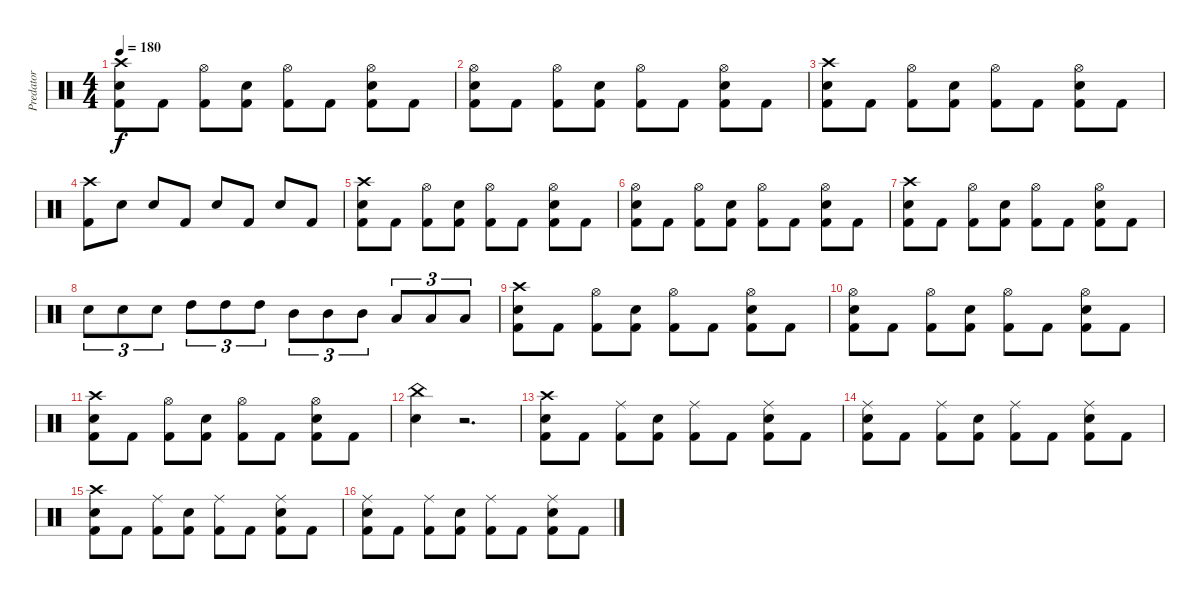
\track ("Predator" "Predator") {instrument percussion}
\staff {score}
\articulation defaults
\ts (4 4)
\tempo 180
\clef neutral
\ks c
("Kick (hit) 2" "Electric Snare (hit)" "Crash high (hit)").8{dy f} "Kick (hit) 2".8 ("Kick (hit) 2" "Hi-Hat (open)").8 ("Kick (hit) 2" "Electric Snare (hit)").8 ("Kick (hit) 2" "Hi-Hat (open)").8 "Kick (hit) 2".8 ("Kick (hit) 2" "Electric Snare (hit)" "Hi-Hat (open)").8 "Kick (hit) 2".8 |
("Kick (hit) 2" "Electric Snare (hit)" "Hi-Hat (open)").8 "Kick (hit) 2".8 ("Kick (hit) 2" "Hi-Hat (open)").8 ("Kick (hit) 2" "Electric Snare (hit)").8 ("Kick (hit) 2" "Hi-Hat (open)").8 "Kick (hit) 2".8 ("Kick (hit) 2" "Electric Snare (hit)" "Hi-Hat (open)").8 "Kick (hit) 2".8 |
("Kick (hit) 2" "Electric Snare (hit)" "Crash high (hit)").8 "Kick (hit) 2".8 ("Kick (hit) 2" "Hi-Hat (open)").8 ("Kick (hit) 2" "Electric Snare (hit)").8 ("Kick (hit) 2" "Hi-Hat (open)").8 "Kick (hit) 2".8 ("Kick (hit) 2" "Electric Snare (hit)" "Hi-Hat (open)").8 "Kick (hit) 2".8 |
("Kick (hit) 2" "Crash high (hit)").8 "Electric Snare (hit)".8 "Electric Snare (hit)".8 "Kick (hit) 2".8 "Electric Snare (hit)".8 "Kick (hit) 2".8 "Electric Snare (hit)".8 "Kick (hit) 2".8 |
("Kick (hit) 2" "Electric Snare (hit)" "Crash high (hit)").8 "Kick (hit) 2".8 ("Kick (hit) 2" "Hi-Hat (open)").8 ("Kick (hit) 2" "Electric Snare (hit)").8 ("Kick (hit) 2" "Hi-Hat (open)").8 "Kick (hit) 2".8 ("Kick (hit) 2" "Electric Snare (hit)" "Hi-Hat (open)").8 "Kick (hit) 2".8 |
("Kick (hit) 2" "Electric Snare (hit)" "Hi-Hat (open)").8 "Kick (hit) 2".8 ("Kick (hit) 2" "Hi-Hat (open)").8 ("Kick (hit) 2" "Electric Snare (hit)").8 ("Kick (hit) 2" "Hi-Hat (open)").8 "Kick (hit) 2".8 ("Kick (hit) 2" "Electric Snare (hit)" "Hi-Hat (open)").8 "Kick (hit) 2".8 |
("Kick (hit) 2" "Electric Snare (hit)" "Crash high (hit)").8 "Kick (hit) 2".8 ("Kick (hit) 2" "Hi-Hat (open)").8 ("Kick (hit) 2" "Electric Snare (hit)").8 ("Kick (hit) 2" "Hi-Hat (open)").8 "Kick (hit) 2".8 ("Kick (hit) 2" "Electric Snare (hit)" "Hi-Hat (open)").8 "Kick (hit) 2".8 |
"Electric Snare (hit)".8{tu (3 2)} "Electric Snare (hit)".8{tu (3 2)} "Electric Snare (hit)".8{tu (3 2)} "High Tom (hit)".8{tu (3 2)} "High Tom (hit)".8{tu (3 2)} "High Tom (hit)".8{tu (3 2)} "Mid Tom (hit)".8{tu (3 2)} "Mid Tom (hit)".8{tu (3 2)} "Mid Tom (hit)".8{tu (3 2)} "Low Tom (hit)".8{tu (3 2)} "Low Tom (hit)".8{tu (3 2)} "Low Tom (hit)".8{tu (3 2)} |
("Kick (hit) 2" "Electric Snare (hit)" "Crash high (hit)").8 "Kick (hit) 2".8 ("Kick (hit) 2" "Hi-Hat (open)").8 ("Kick (hit) 2" "Electric Snare (hit)").8 ("Kick (hit) 2" "Hi-Hat (open)").8 "Kick (hit) 2".8 ("Kick (hit) 2" "Electric Snare (hit)" "Hi-Hat (open)").8 "Kick (hit) 2".8 |
("Kick (hit) 2" "Electric Snare (hit)" "Hi-Hat (open)").8 "Kick (hit) 2".8 ("Kick (hit) 2" "Hi-Hat (open)").8 ("Kick (hit) 2" "Electric Snare (hit)").8 ("Kick (hit) 2" "Hi-Hat (open)").8 "Kick (hit) 2".8 ("Kick (hit) 2" "Electric Snare (hit)" "Hi-Hat (open)").8 "Kick (hit) 2".8 |
("Kick (hit) 2" "Electric Snare (hit)" "Crash high (hit)").8 "Kick (hit) 2".8 ("Kick (hit) 2" "Hi-Hat (open)").8 ("Kick (hit) 2" "Electric Snare (hit)").8 ("Kick (hit) 2" "Hi-Hat (open)").8 "Kick (hit) 2".8 ("Kick (hit) 2" "Electric Snare (hit)" "Hi-Hat (open)").8 "Kick (hit) 2".8 |
("Electric Snare (hit)" "China (hit)").4 r.2{d} |
("Kick (hit) 2" "Electric Snare (hit)" "Crash high (hit)").8 "Kick (hit) 2".8 ("Kick (hit) 2" "Ride (middle)").8 ("Kick (hit) 2" "Electric Snare (hit)").8 ("Kick (hit) 2" "Ride (middle)").8 "Kick (hit) 2".8 ("Kick (hit) 2" "Electric Snare (hit)" "Ride (middle)").8 "Kick (hit) 2".8 |
("Kick (hit) 2" "Electric Snare (hit)" "Ride (middle)").8 "Kick (hit) 2".8 ("Kick (hit) 2" "Ride (middle)").8 ("Kick (hit) 2" "Electric Snare (hit)").8 ("Kick (hit) 2" "Ride (middle)").8 "Kick (hit) 2".8 ("Kick (hit) 2" "Electric Snare (hit)" "Ride (middle)").8 "Kick (hit) 2".8 |
("Kick (hit) 2" "Electric Snare (hit)" "Crash high (hit)").8 "Kick (hit) 2".8 ("Kick (hit) 2" "Ride (middle)").8 ("Kick (hit) 2" "Electric Snare (hit)").8 ("Kick (hit) 2" "Ride (middle)").8 "Kick (hit) 2".8 ("Kick (hit) 2" "Electric Snare (hit)" "Ride (middle)").8 "Kick (hit) 2".8 |
("Kick (hit) 2" "Electric Snare (hit)" "Ride (middle)").8 "Kick (hit) 2".8 ("Kick (hit) 2" "Ride (middle)").8 ("Kick (hit) 2" "Electric Snare (hit)").8 ("Kick (hit) 2" "Ride (middle)").8 "Kick (hit) 2".8 ("Kick (hit) 2" "Electric Snare (hit)" "Ride (middle)").8 "Kick (hit) 2".8
